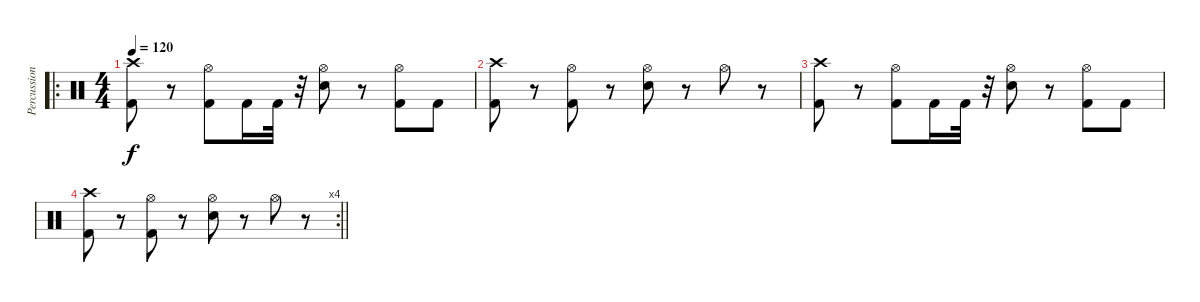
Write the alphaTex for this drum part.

\track ("Percussion" "Percussion") {instrument percussion}
\staff {score}
\articulation defaults
\ro
\ts (4 4)
\tempo 120
\clef neutral
\ks c
("Kick (hit) 2" "Crash high (hit)").8{dy f} r.8 ("Kick (hit) 2" "Hi-Hat (open)").8 "Kick (hit) 2".16 "Kick (hit) 2".32 r.32 ("Electric Snare (hit)" "Hi-Hat (open)").8 r.8 ("Kick (hit) 2" "Hi-Hat (open)").8 "Kick (hit) 2".8 |
("Kick (hit) 2" "Crash high (hit)").8 r.8 ("Kick (hit) 2" "Hi-Hat (open)").8 r.8 ("Electric Snare (hit)" "Hi-Hat (open)").8 r.8 "Hi-Hat (open)".8 r.8 |
("Kick (hit) 2" "Crash high (hit)").8 r.8 ("Kick (hit) 2" "Hi-Hat (open)").8 "Kick (hit) 2".16 "Kick (hit) 2".32 r.32 ("Electric Snare (hit)" "Hi-Hat (open)").8 r.8 ("Kick (hit) 2" "Hi-Hat (open)").8 "Kick (hit) 2".8 |
\rc 4
\barLineRight lightlight
("Kick (hit) 2" "Crash high (hit)").8 r.8 ("Kick (hit) 2" "Hi-Hat (open)").8 r.8 ("Electric Snare (hit)" "Hi-Hat (open)").8 r.8 "Hi-Hat (open)".8 r.8
